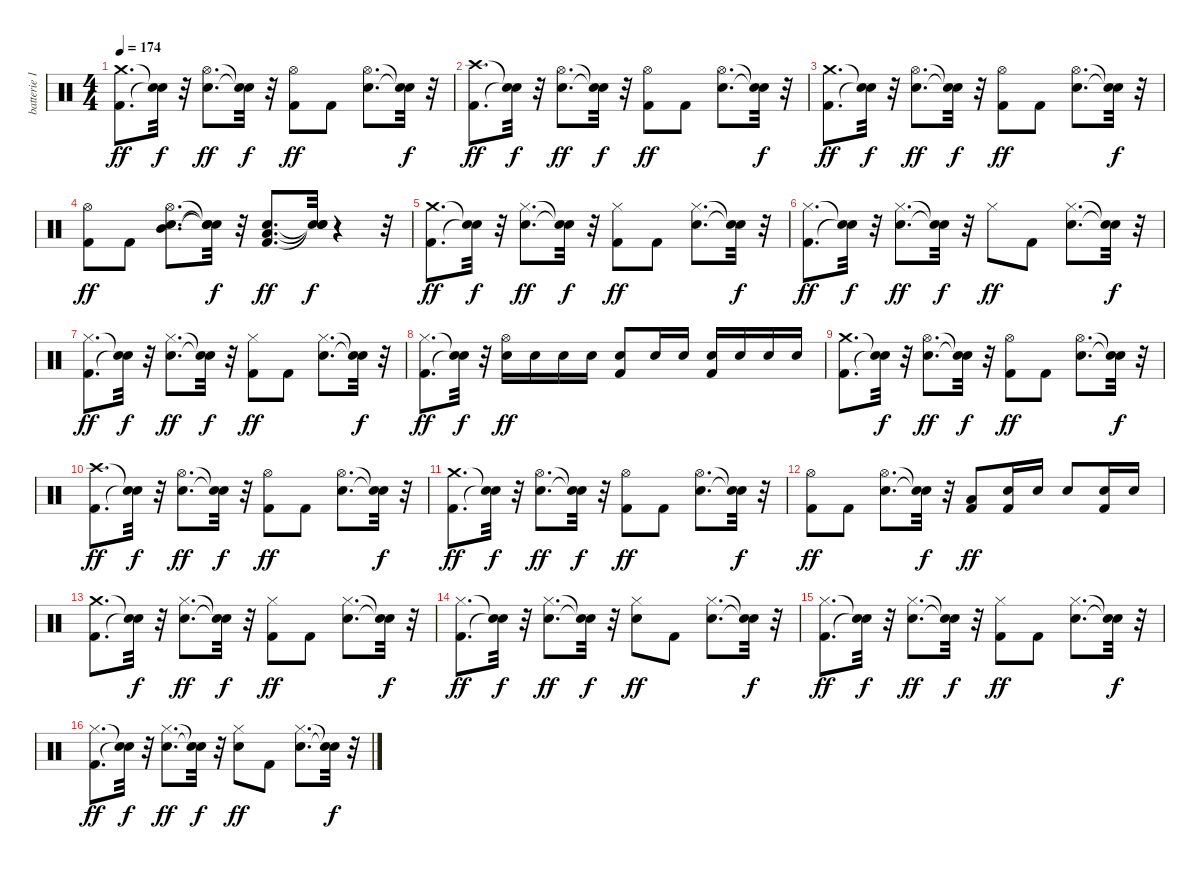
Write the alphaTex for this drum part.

\track ("batterie 1" "batterie 1") {instrument percussion}
\staff {score}
\articulation defaults
\ts (4 4)
\tempo 174
\clef neutral
\ks c
("Kick (hit) 2" "Crash medium (hit)").8{d dy ff} ("Snare (hit)"{t} "Snare (hit)"{t}).32{dy f} r.32 ("Electric Snare (hit)" "Hi-Hat (open)").8{d dy ff} ("Snare (hit)"{t} "Snare (hit)"{t}).32{dy f} r.32 ("Kick (hit) 2" "Hi-Hat (open)").8{dy ff} "Kick (hit) 2".8 ("Electric Snare (hit)" "Hi-Hat (open)").8{d} ("Snare (hit)"{t} "Snare (hit)"{t}).32{dy f} r.32 |
("Kick (hit) 2" "Crash high (hit)").8{d dy ff} ("Snare (hit)"{t} "Snare (hit)"{t}).32{dy f} r.32 ("Electric Snare (hit)" "Hi-Hat (open)").8{d dy ff} ("Snare (hit)"{t} "Snare (hit)"{t}).32{dy f} r.32 ("Kick (hit) 2" "Hi-Hat (open)").8{dy ff} "Kick (hit) 2".8 ("Electric Snare (hit)" "Hi-Hat (open)").8{d} ("Snare (hit)"{t} "Snare (hit)"{t}).32{dy f} r.32 |
("Kick (hit) 2" "Crash medium (hit)").8{d dy ff} ("Snare (hit)"{t} "Snare (hit)"{t}).32{dy f} r.32 ("Electric Snare (hit)" "Hi-Hat (open)").8{d dy ff} ("Snare (hit)"{t} "Snare (hit)"{t}).32{dy f} r.32 ("Kick (hit) 2" "Hi-Hat (open)").8{dy ff} "Kick (hit) 2".8 ("Electric Snare (hit)" "Hi-Hat (open)").8{d} ("Snare (hit)"{t} "Snare (hit)"{t}).32{dy f} r.32 |
("Kick (hit) 2" "Hi-Hat (open)").8{dy ff} "Kick (hit) 2".8 ("Electric Snare (hit)" "Hi-Hat (open)" "Mid Tom (hit)").8{d} ("Snare (hit)"{t} "Snare (hit)"{t} "Snare (hit)"{t}).32{dy f} r.32 ("Kick (hit) 2" "Electric Snare (hit)" "Low Tom (hit)").8{d dy ff} ("Snare (hit)"{t} "Snare (hit)"{t} "Snare (hit)"{t}).32{dy f} r.4 r.32 |
("Kick (hit) 2" "Crash medium (hit)").8{d dy ff} ("Snare (hit)"{t} "Snare (hit)"{t}).32{dy f} r.32 ("Electric Snare (hit)" "Hi-Hat (closed)").8{d dy ff} ("Snare (hit)"{t} "Snare (hit)"{t}).32{dy f} r.32 ("Kick (hit) 2" "Hi-Hat (closed)").8{dy ff} "Kick (hit) 2".8 ("Electric Snare (hit)" "Hi-Hat (closed)").8{d} ("Snare (hit)"{t} "Snare (hit)"{t}).32{dy f} r.32 |
("Kick (hit) 2" "Hi-Hat (closed)").8{d dy ff} ("Snare (hit)"{t} "Snare (hit)"{t}).32{dy f} r.32 ("Electric Snare (hit)" "Hi-Hat (closed)").8{d dy ff} ("Snare (hit)"{t} "Snare (hit)"{t}).32{dy f} r.32 "Hi-Hat (closed)".8{dy ff} "Kick (hit) 2".8 ("Electric Snare (hit)" "Hi-Hat (closed)").8{d} ("Snare (hit)"{t} "Snare (hit)"{t}).32{dy f} r.32 |
("Kick (hit) 2" "Hi-Hat (closed)").8{d dy ff} ("Snare (hit)"{t} "Snare (hit)"{t}).32{dy f} r.32 ("Electric Snare (hit)" "Hi-Hat (closed)").8{d dy ff} ("Snare (hit)"{t} "Snare (hit)"{t}).32{dy f} r.32 ("Kick (hit) 2" "Hi-Hat (closed)").8{dy ff} "Kick (hit) 2".8 ("Electric Snare (hit)" "Hi-Hat (closed)").8{d} ("Snare (hit)"{t} "Snare (hit)"{t}).32{dy f} r.32 |
("Kick (hit) 2" "Hi-Hat (closed)").8{d dy ff} ("Snare (hit)"{t} "Snare (hit)"{t}).32{dy f} r.32 ("Electric Snare (hit)" "Hi-Hat (open)").16{dy ff} "Electric Snare (hit)".16 "Electric Snare (hit)".16 "Electric Snare (hit)".16 ("Kick (hit) 2" "Electric Snare (hit)").8 "Electric Snare (hit)".16 "Electric Snare (hit)".16 ("Kick (hit) 2" "Electric Snare (hit)").16 "Electric Snare (hit)".16 "Electric Snare (hit)".16 "Electric Snare (hit)".16 |
("Kick (hit) 2" "Crash medium (hit)").8{d} ("Snare (hit)"{t} "Snare (hit)"{t}).32{dy f} r.32 ("Electric Snare (hit)" "Hi-Hat (open)").8{d dy ff} ("Snare (hit)"{t} "Snare (hit)"{t}).32{dy f} r.32 ("Kick (hit) 2" "Hi-Hat (open)").8{dy ff} "Kick (hit) 2".8 ("Electric Snare (hit)" "Hi-Hat (open)").8{d} ("Snare (hit)"{t} "Snare (hit)"{t}).32{dy f} r.32 |
("Kick (hit) 2" "Crash high (hit)").8{d dy ff} ("Snare (hit)"{t} "Snare (hit)"{t}).32{dy f} r.32 ("Electric Snare (hit)" "Hi-Hat (open)").8{d dy ff} ("Snare (hit)"{t} "Snare (hit)"{t}).32{dy f} r.32 ("Kick (hit) 2" "Hi-Hat (open)").8{dy ff} "Kick (hit) 2".8 ("Electric Snare (hit)" "Hi-Hat (open)").8{d} ("Snare (hit)"{t} "Snare (hit)"{t}).32{dy f} r.32 |
("Kick (hit) 2" "Crash medium (hit)").8{d dy ff} ("Snare (hit)"{t} "Snare (hit)"{t}).32{dy f} r.32 ("Electric Snare (hit)" "Hi-Hat (open)").8{d dy ff} ("Snare (hit)"{t} "Snare (hit)"{t}).32{dy f} r.32 ("Kick (hit) 2" "Hi-Hat (open)").8{dy ff} "Kick (hit) 2".8 ("Electric Snare (hit)" "Hi-Hat (open)").8{d} ("Snare (hit)"{t} "Snare (hit)"{t}).32{dy f} r.32 |
("Kick (hit) 2" "Hi-Hat (open)").8{dy ff} "Kick (hit) 2".8 ("Electric Snare (hit)" "Hi-Hat (open)").8{d} ("Snare (hit)"{t} "Snare (hit)"{t}).32{dy f} r.32 ("Kick (hit) 2" "Low Tom (hit)").8{dy ff} ("Kick (hit) 2" "Electric Snare (hit)").16 "Electric Snare (hit)".16 "Electric Snare (hit)".8 ("Kick (hit) 2" "Electric Snare (hit)").16 "Electric Snare (hit)".16 |
("Kick (hit) 2" "Crash medium (hit)").8{d} ("Snare (hit)"{t} "Snare (hit)"{t}).32{dy f} r.32 ("Electric Snare (hit)" "Hi-Hat (closed)").8{d dy ff} ("Snare (hit)"{t} "Snare (hit)"{t}).32{dy f} r.32 ("Kick (hit) 2" "Hi-Hat (closed)").8{dy ff} "Kick (hit) 2".8 ("Electric Snare (hit)" "Hi-Hat (closed)").8{d} ("Snare (hit)"{t} "Snare (hit)"{t}).32{dy f} r.32 |
("Kick (hit) 2" "Hi-Hat (closed)").8{d dy ff} ("Snare (hit)"{t} "Snare (hit)"{t}).32{dy f} r.32 ("Electric Snare (hit)" "Hi-Hat (closed)").8{d dy ff} ("Snare (hit)"{t} "Snare (hit)"{t}).32{dy f} r.32 ("Electric Snare (hit)" "Hi-Hat (closed)").8{dy ff} "Kick (hit) 2".8 ("Electric Snare (hit)" "Hi-Hat (closed)").8{d} ("Snare (hit)"{t} "Snare (hit)"{t}).32{dy f} r.32 |
("Kick (hit) 2" "Hi-Hat (closed)").8{d dy ff} ("Snare (hit)"{t} "Snare (hit)"{t}).32{dy f} r.32 ("Electric Snare (hit)" "Hi-Hat (closed)").8{d dy ff} ("Snare (hit)"{t} "Snare (hit)"{t}).32{dy f} r.32 ("Kick (hit) 2" "Hi-Hat (closed)").8{dy ff} "Kick (hit) 2".8 ("Electric Snare (hit)" "Hi-Hat (closed)").8{d} ("Snare (hit)"{t} "Snare (hit)"{t}).32{dy f} r.32 |
("Kick (hit) 2" "Hi-Hat (closed)").8{d dy ff} ("Snare (hit)"{t} "Snare (hit)"{t}).32{dy f} r.32 ("Electric Snare (hit)" "Hi-Hat (closed)").8{d dy ff} ("Snare (hit)"{t} "Snare (hit)"{t}).32{dy f} r.32 ("Electric Snare (hit)" "Hi-Hat (closed)").8{dy ff} "Kick (hit) 2".8 ("Electric Snare (hit)" "Hi-Hat (closed)").8{d} ("Snare (hit)"{t} "Snare (hit)"{t}).32{dy f} r.32
